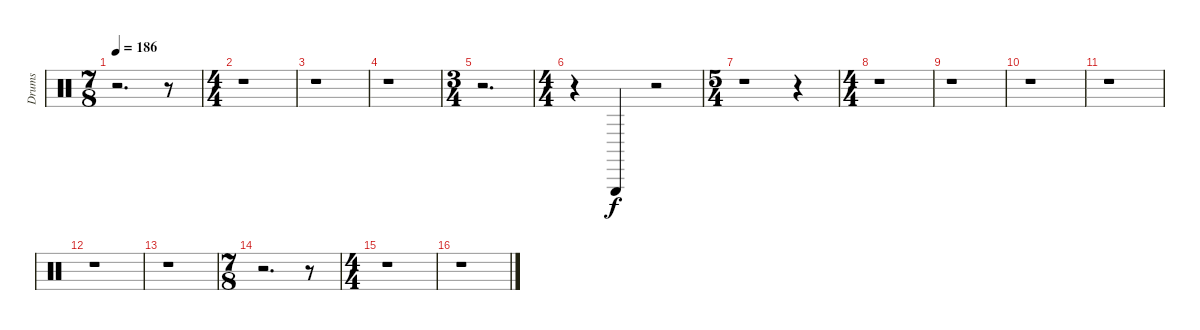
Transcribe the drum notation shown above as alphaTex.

\track ("Drums" "Drums") {instrument percussion}
\staff {score}
\articulation defaults
\ts (7 8)
\tempo 186
\clef neutral
\ks c
r.2{d dy ff} r.8 |
\ts (4 4)
r.1 |
r.1 |
r.1 |
\ts (3 4)
r.2{d} |
\ts (4 4)
r.4 "Triangle (hit)".4{dy f} r.2 |
\ts (5 4)
r.1 r.4 |
\ts (4 4)
r.1 |
r.1 |
r.1 |
r.1 |
r.1 |
r.1 |
\ts (7 8)
r.2{d} r.8 |
\ts (4 4)
r.1 |
r.1
